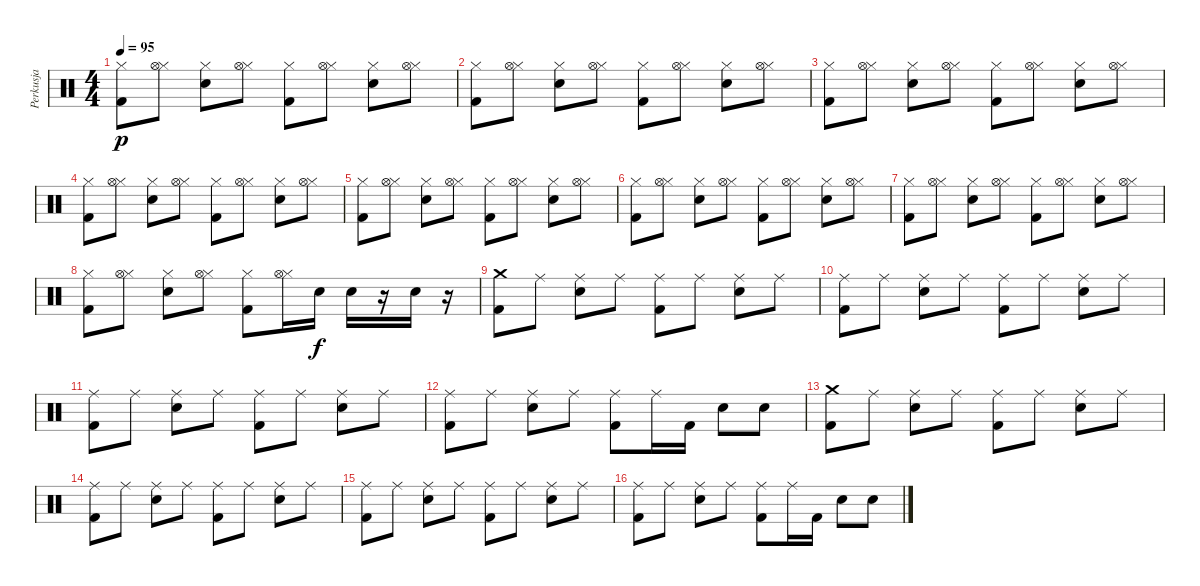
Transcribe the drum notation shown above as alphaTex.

\track ("Perkusja" "Perkusja") {instrument percussion}
\staff {score}
\articulation defaults
\ts (4 4)
\tempo 95
\clef neutral
\ks c
("Kick (hit) 2" "Hi-Hat (closed)").8{dy p} ("Hi-Hat (closed)" "Hi-Hat (open)").8 ("Electric Snare (hit)" "Hi-Hat (closed)").8 ("Hi-Hat (closed)" "Hi-Hat (open)").8 ("Kick (hit) 2" "Hi-Hat (closed)").8 ("Hi-Hat (closed)" "Hi-Hat (open)").8 ("Electric Snare (hit)" "Hi-Hat (closed)").8 ("Hi-Hat (closed)" "Hi-Hat (open)").8 |
("Kick (hit) 2" "Hi-Hat (closed)").8 ("Hi-Hat (closed)" "Hi-Hat (open)").8 ("Electric Snare (hit)" "Hi-Hat (closed)").8 ("Hi-Hat (closed)" "Hi-Hat (open)").8 ("Kick (hit) 2" "Hi-Hat (closed)").8 ("Hi-Hat (closed)" "Hi-Hat (open)").8 ("Electric Snare (hit)" "Hi-Hat (closed)").8 ("Hi-Hat (closed)" "Hi-Hat (open)").8 |
("Kick (hit) 2" "Hi-Hat (closed)").8 ("Hi-Hat (closed)" "Hi-Hat (open)").8 ("Electric Snare (hit)" "Hi-Hat (closed)").8 ("Hi-Hat (closed)" "Hi-Hat (open)").8 ("Kick (hit) 2" "Hi-Hat (closed)").8 ("Hi-Hat (closed)" "Hi-Hat (open)").8 ("Electric Snare (hit)" "Hi-Hat (closed)").8 ("Hi-Hat (closed)" "Hi-Hat (open)").8 |
("Kick (hit) 2" "Hi-Hat (closed)").8 ("Hi-Hat (closed)" "Hi-Hat (open)").8 ("Electric Snare (hit)" "Hi-Hat (closed)").8 ("Hi-Hat (closed)" "Hi-Hat (open)").8 ("Kick (hit) 2" "Hi-Hat (closed)").8 ("Hi-Hat (closed)" "Hi-Hat (open)").8 ("Electric Snare (hit)" "Hi-Hat (closed)").8 ("Hi-Hat (closed)" "Hi-Hat (open)").8 |
("Kick (hit) 2" "Hi-Hat (closed)").8 ("Hi-Hat (closed)" "Hi-Hat (open)").8 ("Electric Snare (hit)" "Hi-Hat (closed)").8 ("Hi-Hat (closed)" "Hi-Hat (open)").8 ("Kick (hit) 2" "Hi-Hat (closed)").8 ("Hi-Hat (closed)" "Hi-Hat (open)").8 ("Electric Snare (hit)" "Hi-Hat (closed)").8 ("Hi-Hat (closed)" "Hi-Hat (open)").8 |
("Kick (hit) 2" "Hi-Hat (closed)").8 ("Hi-Hat (closed)" "Hi-Hat (open)").8 ("Electric Snare (hit)" "Hi-Hat (closed)").8 ("Hi-Hat (closed)" "Hi-Hat (open)").8 ("Kick (hit) 2" "Hi-Hat (closed)").8 ("Hi-Hat (closed)" "Hi-Hat (open)").8 ("Electric Snare (hit)" "Hi-Hat (closed)").8 ("Hi-Hat (closed)" "Hi-Hat (open)").8 |
("Kick (hit) 2" "Hi-Hat (closed)").8 ("Hi-Hat (closed)" "Hi-Hat (open)").8 ("Electric Snare (hit)" "Hi-Hat (closed)").8 ("Hi-Hat (closed)" "Hi-Hat (open)").8 ("Kick (hit) 2" "Hi-Hat (closed)").8 ("Hi-Hat (closed)" "Hi-Hat (open)").8 ("Electric Snare (hit)" "Hi-Hat (closed)").8 ("Hi-Hat (closed)" "Hi-Hat (open)").8 |
("Kick (hit) 2" "Hi-Hat (closed)").8 ("Hi-Hat (closed)" "Hi-Hat (open)").8 ("Electric Snare (hit)" "Hi-Hat (closed)").8 ("Hi-Hat (closed)" "Hi-Hat (open)").8 ("Kick (hit) 2" "Hi-Hat (closed)").8 ("Hi-Hat (closed)" "Hi-Hat (open)").16 "Electric Snare (hit)".16{dy f} "Electric Snare (hit)".16 r.16 "Electric Snare (hit)".16 r.16 |
("Kick (hit) 2" "Crash medium (hit)").8 "Ride (middle)".8 ("Electric Snare (hit)" "Ride (middle)").8 "Ride (middle)".8 ("Kick (hit) 2" "Ride (middle)").8 "Ride (middle)".8 ("Electric Snare (hit)" "Ride (middle)").8 "Ride (middle)".8 |
("Kick (hit) 2" "Ride (middle)").8 "Ride (middle)".8 ("Electric Snare (hit)" "Ride (middle)").8 "Ride (middle)".8 ("Kick (hit) 2" "Ride (middle)").8 "Ride (middle)".8 ("Electric Snare (hit)" "Ride (middle)").8 "Ride (middle)".8 |
("Kick (hit) 2" "Ride (middle)").8 "Ride (middle)".8 ("Electric Snare (hit)" "Ride (middle)").8 "Ride (middle)".8 ("Kick (hit) 2" "Ride (middle)").8 "Ride (middle)".8 ("Electric Snare (hit)" "Ride (middle)").8 "Ride (middle)".8 |
("Kick (hit) 2" "Ride (middle)").8 "Ride (middle)".8 ("Electric Snare (hit)" "Ride (middle)").8 "Ride (middle)".8 ("Kick (hit) 2" "Ride (middle)").8 "Ride (middle)".16 "Kick (hit) 2".16 "Electric Snare (hit)".8 "Electric Snare (hit)".8 |
("Kick (hit) 2" "Crash medium (hit)").8 "Ride (middle)".8 ("Electric Snare (hit)" "Ride (middle)").8 "Ride (middle)".8 ("Kick (hit) 2" "Ride (middle)").8 "Ride (middle)".8 ("Electric Snare (hit)" "Ride (middle)").8 "Ride (middle)".8 |
("Kick (hit) 2" "Ride (middle)").8 "Ride (middle)".8 ("Electric Snare (hit)" "Ride (middle)").8 "Ride (middle)".8 ("Kick (hit) 2" "Ride (middle)").8 "Ride (middle)".8 ("Electric Snare (hit)" "Ride (middle)").8 "Ride (middle)".8 |
("Kick (hit) 2" "Ride (middle)").8 "Ride (middle)".8 ("Electric Snare (hit)" "Ride (middle)").8 "Ride (middle)".8 ("Kick (hit) 2" "Ride (middle)").8 "Ride (middle)".8 ("Electric Snare (hit)" "Ride (middle)").8 "Ride (middle)".8 |
("Kick (hit) 2" "Ride (middle)").8 "Ride (middle)".8 ("Electric Snare (hit)" "Ride (middle)").8 "Ride (middle)".8 ("Kick (hit) 2" "Ride (middle)").8 "Ride (middle)".16 "Kick (hit) 2".16 "Electric Snare (hit)".8 "Electric Snare (hit)".8
